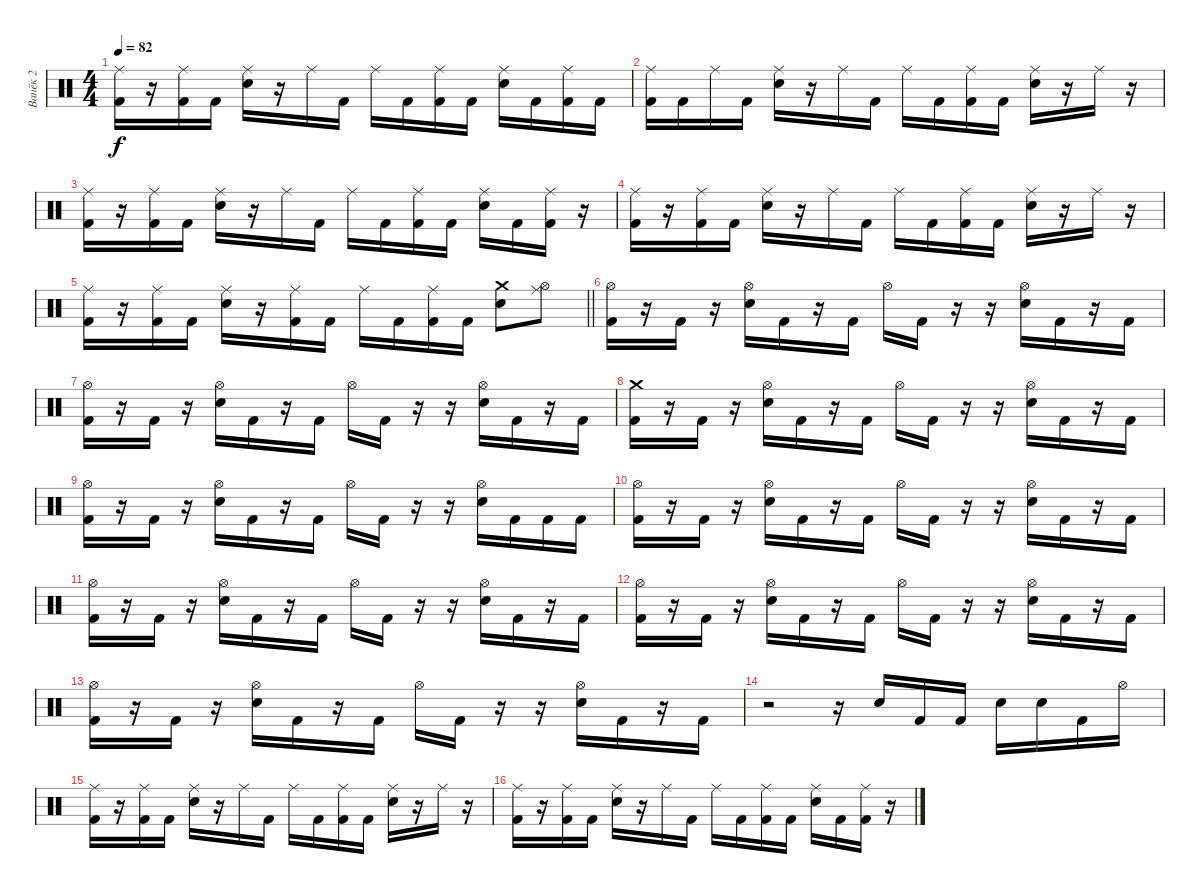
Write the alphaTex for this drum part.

\track ("Ванёк 2" "Ванёк 2") {instrument percussion}
\staff {score}
\articulation defaults
\ts (4 4)
\tempo 82
\clef neutral
\ks c
("Ride (middle)" "Kick (hit) 2").16{dy f} r.16 ("Ride (middle)" "Kick (hit) 2").16 "Kick (hit) 2".16 ("Ride (middle)" "Snare (hit) 2").16 r.16 "Ride (middle)".16 "Kick (hit) 2".16 "Ride (middle)".16 "Kick (hit) 2".16 ("Ride (middle)" "Kick (hit) 2").16 "Kick (hit) 2".16 ("Ride (middle)" "Snare (hit) 2").16 "Kick (hit) 2".16 ("Ride (middle)" "Kick (hit) 2").16 "Kick (hit) 2".16 |
("Ride (middle)" "Kick (hit) 2").16 "Kick (hit) 2".16 "Ride (middle)".16 "Kick (hit) 2".16 ("Ride (middle)" "Snare (hit) 2").16 r.16 "Ride (middle)".16 "Kick (hit) 2".16 "Ride (middle)".16 "Kick (hit) 2".16 ("Ride (middle)" "Kick (hit) 2").16 "Kick (hit) 2".16 ("Ride (middle)" "Snare (hit) 2").16 r.16 "Ride (middle)".16 r.16 |
("Ride (middle)" "Kick (hit) 2").16 r.16 ("Ride (middle)" "Kick (hit) 2").16 "Kick (hit) 2".16 ("Ride (middle)" "Snare (hit) 2").16 r.16 "Ride (middle)".16 "Kick (hit) 2".16 "Ride (middle)".16 "Kick (hit) 2".16 ("Ride (middle)" "Kick (hit) 2").16 "Kick (hit) 2".16 ("Ride (middle)" "Snare (hit) 2").16 "Kick (hit) 2".16 ("Ride (middle)" "Kick (hit) 2").16 r.16 |
("Ride (middle)" "Kick (hit) 2").16 r.16 ("Ride (middle)" "Kick (hit) 2").16 "Kick (hit) 2".16 ("Ride (middle)" "Snare (hit) 2").16 r.16 "Ride (middle)".16 "Kick (hit) 2".16 "Ride (middle)".16 "Kick (hit) 2".16 ("Ride (middle)" "Kick (hit) 2").16 "Kick (hit) 2".16 ("Ride (middle)" "Snare (hit) 2").16 r.16 "Ride (middle)".16 r.16 |
\barLineRight lightlight
("Ride (middle)" "Kick (hit) 2").16 r.16 ("Ride (middle)" "Kick (hit) 2").16 "Kick (hit) 2".16 ("Ride (middle)" "Snare (hit) 2").16 r.16 ("Ride (middle)" "Kick (hit) 2").16 "Kick (hit) 2".16 "Ride (middle)".16 "Kick (hit) 2".16 ("Ride (middle)" "Kick (hit) 2").16 "Kick (hit) 2".16 ("Crash medium (hit)" "Snare (hit) 2").8 ("Ride (middle)" "Hi-Hat (open)").8 |
("Hi-Hat (open)" "Kick (hit) 2").16 r.16 "Kick (hit) 2".16 r.16 ("Hi-Hat (open)" "Snare (hit) 2").16 "Kick (hit) 2".16 r.16 "Kick (hit) 2".16 "Hi-Hat (open)".16 "Kick (hit) 2".16 r.16 r.16 ("Hi-Hat (open)" "Snare (hit) 2").16 "Kick (hit) 2".16 r.16 "Kick (hit) 2".16 |
("Hi-Hat (open)" "Kick (hit) 2").16 r.16 "Kick (hit) 2".16 r.16 ("Hi-Hat (open)" "Snare (hit) 2").16 "Kick (hit) 2".16 r.16 "Kick (hit) 2".16 "Hi-Hat (open)".16 "Kick (hit) 2".16 r.16 r.16 ("Hi-Hat (open)" "Snare (hit) 2").16 "Kick (hit) 2".16 r.16 "Kick (hit) 2".16 |
("Crash medium (hit)" "Kick (hit) 2").16 r.16 "Kick (hit) 2".16 r.16 ("Hi-Hat (open)" "Snare (hit) 2").16 "Kick (hit) 2".16 r.16 "Kick (hit) 2".16 "Hi-Hat (open)".16 "Kick (hit) 2".16 r.16 r.16 ("Hi-Hat (open)" "Snare (hit) 2").16 "Kick (hit) 2".16 r.16 "Kick (hit) 2".16 |
("Hi-Hat (open)" "Kick (hit) 2").16 r.16 "Kick (hit) 2".16 r.16 ("Hi-Hat (open)" "Snare (hit) 2").16 "Kick (hit) 2".16 r.16 "Kick (hit) 2".16 "Hi-Hat (open)".16 "Kick (hit) 2".16 r.16 r.16 ("Hi-Hat (open)" "Snare (hit) 2").16 "Kick (hit) 2".16 "Kick (hit) 2".16 "Kick (hit) 2".16 |
("Hi-Hat (open)" "Kick (hit) 2").16 r.16 "Kick (hit) 2".16 r.16 ("Hi-Hat (open)" "Snare (hit) 2").16 "Kick (hit) 2".16 r.16 "Kick (hit) 2".16 "Hi-Hat (open)".16 "Kick (hit) 2".16 r.16 r.16 ("Hi-Hat (open)" "Snare (hit) 2").16 "Kick (hit) 2".16 r.16 "Kick (hit) 2".16 |
("Hi-Hat (open)" "Kick (hit) 2").16 r.16 "Kick (hit) 2".16 r.16 ("Hi-Hat (open)" "Snare (hit) 2").16 "Kick (hit) 2".16 r.16 "Kick (hit) 2".16 "Hi-Hat (open)".16 "Kick (hit) 2".16 r.16 r.16 ("Hi-Hat (open)" "Snare (hit) 2").16 "Kick (hit) 2".16 r.16 "Kick (hit) 2".16 |
("Hi-Hat (open)" "Kick (hit) 2").16 r.16 "Kick (hit) 2".16 r.16 ("Hi-Hat (open)" "Snare (hit) 2").16 "Kick (hit) 2".16 r.16 "Kick (hit) 2".16 "Hi-Hat (open)".16 "Kick (hit) 2".16 r.16 r.16 ("Hi-Hat (open)" "Snare (hit) 2").16 "Kick (hit) 2".16 r.16 "Kick (hit) 2".16 |
("Hi-Hat (open)" "Kick (hit) 2").16 r.16 "Kick (hit) 2".16 r.16 ("Hi-Hat (open)" "Snare (hit) 2").16 "Kick (hit) 2".16 r.16 "Kick (hit) 2".16 "Hi-Hat (open)".16 "Kick (hit) 2".16 r.16 r.16 ("Hi-Hat (open)" "Snare (hit) 2").16 "Kick (hit) 2".16 r.16 "Kick (hit) 2".16 |
r.2 r.16 "Snare (hit) 2".16 "Kick (hit) 2".16 "Kick (hit) 2".16 "Snare (hit) 2".16 "Snare (hit) 2".16 "Kick (hit) 2".16 "Hi-Hat (open)".16 |
("Ride (middle)" "Kick (hit) 2").16 r.16 ("Ride (middle)" "Kick (hit) 2").16 "Kick (hit) 2".16 ("Ride (middle)" "Snare (hit) 2").16 r.16 "Ride (middle)".16 "Kick (hit) 2".16 "Ride (middle)".16 "Kick (hit) 2".16 ("Ride (middle)" "Kick (hit) 2").16 "Kick (hit) 2".16 ("Ride (middle)" "Snare (hit) 2").16 r.16 "Ride (middle)".16 r.16 |
("Ride (middle)" "Kick (hit) 2").16 r.16 ("Ride (middle)" "Kick (hit) 2").16 "Kick (hit) 2".16 ("Ride (middle)" "Snare (hit) 2").16 r.16 "Ride (middle)".16 "Kick (hit) 2".16 "Ride (middle)".16 "Kick (hit) 2".16 ("Ride (middle)" "Kick (hit) 2").16 "Kick (hit) 2".16 ("Ride (middle)" "Snare (hit) 2").16 "Kick (hit) 2".16 ("Ride (middle)" "Kick (hit) 2").16 r.16
